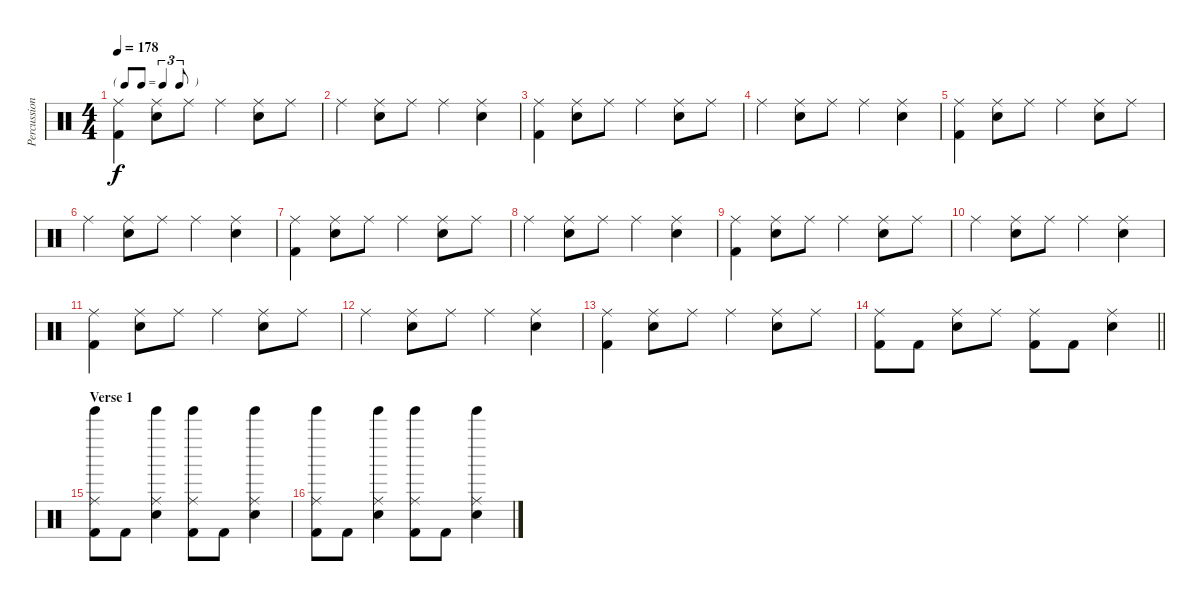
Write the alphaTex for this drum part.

\track ("Percussion" "Percussion") {instrument percussion}
\staff {score}
\articulation defaults
\ts (4 4)
\tf triplet8th
\tempo 178
\clef neutral
\ks c
("Ride (middle)" "Kick (hit) 2").4{dy f} ("Ride (middle)" "Snare (hit) 2").8 "Ride (middle)".8 "Ride (middle)".4 ("Ride (middle)" "Snare (hit) 2").8 "Ride (middle)".8 |
"Ride (middle)".4 ("Ride (middle)" "Snare (hit) 2").8 "Ride (middle)".8 "Ride (middle)".4 ("Ride (middle)" "Snare (hit) 2").4 |
("Ride (middle)" "Kick (hit) 2").4 ("Ride (middle)" "Snare (hit) 2").8 "Ride (middle)".8 "Ride (middle)".4 ("Ride (middle)" "Snare (hit) 2").8 "Ride (middle)".8 |
"Ride (middle)".4 ("Ride (middle)" "Snare (hit) 2").8 "Ride (middle)".8 "Ride (middle)".4 ("Ride (middle)" "Snare (hit) 2").4 |
("Ride (middle)" "Kick (hit) 2").4 ("Ride (middle)" "Snare (hit) 2").8 "Ride (middle)".8 "Ride (middle)".4 ("Ride (middle)" "Snare (hit) 2").8 "Ride (middle)".8 |
"Ride (middle)".4 ("Ride (middle)" "Snare (hit) 2").8 "Ride (middle)".8 "Ride (middle)".4 ("Ride (middle)" "Snare (hit) 2").4 |
("Ride (middle)" "Kick (hit) 2").4 ("Ride (middle)" "Snare (hit) 2").8 "Ride (middle)".8 "Ride (middle)".4 ("Ride (middle)" "Snare (hit) 2").8 "Ride (middle)".8 |
"Ride (middle)".4 ("Ride (middle)" "Snare (hit) 2").8 "Ride (middle)".8 "Ride (middle)".4 ("Ride (middle)" "Snare (hit) 2").4 |
("Ride (middle)" "Kick (hit) 2").4 ("Ride (middle)" "Snare (hit) 2").8 "Ride (middle)".8 "Ride (middle)".4 ("Ride (middle)" "Snare (hit) 2").8 "Ride (middle)".8 |
"Ride (middle)".4 ("Ride (middle)" "Snare (hit) 2").8 "Ride (middle)".8 "Ride (middle)".4 ("Ride (middle)" "Snare (hit) 2").4 |
("Ride (middle)" "Kick (hit) 2").4 ("Ride (middle)" "Snare (hit) 2").8 "Ride (middle)".8 "Ride (middle)".4 ("Ride (middle)" "Snare (hit) 2").8 "Ride (middle)".8 |
"Ride (middle)".4 ("Ride (middle)" "Snare (hit) 2").8 "Ride (middle)".8 "Ride (middle)".4 ("Ride (middle)" "Snare (hit) 2").4 |
("Ride (middle)" "Kick (hit) 2").4 ("Ride (middle)" "Snare (hit) 2").8 "Ride (middle)".8 "Ride (middle)".4 ("Ride (middle)" "Snare (hit) 2").8 "Ride (middle)".8 |
\barLineRight lightlight
("Ride (middle)" "Kick (hit) 2").8 "Kick (hit) 2".8 ("Ride (middle)" "Snare (hit) 2").8 "Ride (middle)".8 ("Ride (middle)" "Kick (hit) 2").8 "Kick (hit) 2".8 ("Ride (middle)" "Snare (hit) 2").4 |
\section ("" "Verse 1")
("Ride (middle)" "Tinkle Bell (hit)" "Kick (hit) 2").8 "Kick (hit) 2".8 ("Ride (middle)" "Tinkle Bell (hit)" "Snare (hit) 2").4 ("Ride (middle)" "Tinkle Bell (hit)" "Kick (hit) 2").8 "Kick (hit) 2".8 ("Ride (middle)" "Tinkle Bell (hit)" "Snare (hit) 2").4 |
("Ride (middle)" "Tinkle Bell (hit)" "Kick (hit) 2").8 "Kick (hit) 2".8 ("Ride (middle)" "Tinkle Bell (hit)" "Snare (hit) 2").4 ("Ride (middle)" "Tinkle Bell (hit)" "Kick (hit) 2").8 "Kick (hit) 2".8 ("Ride (middle)" "Tinkle Bell (hit)" "Snare (hit) 2").4
